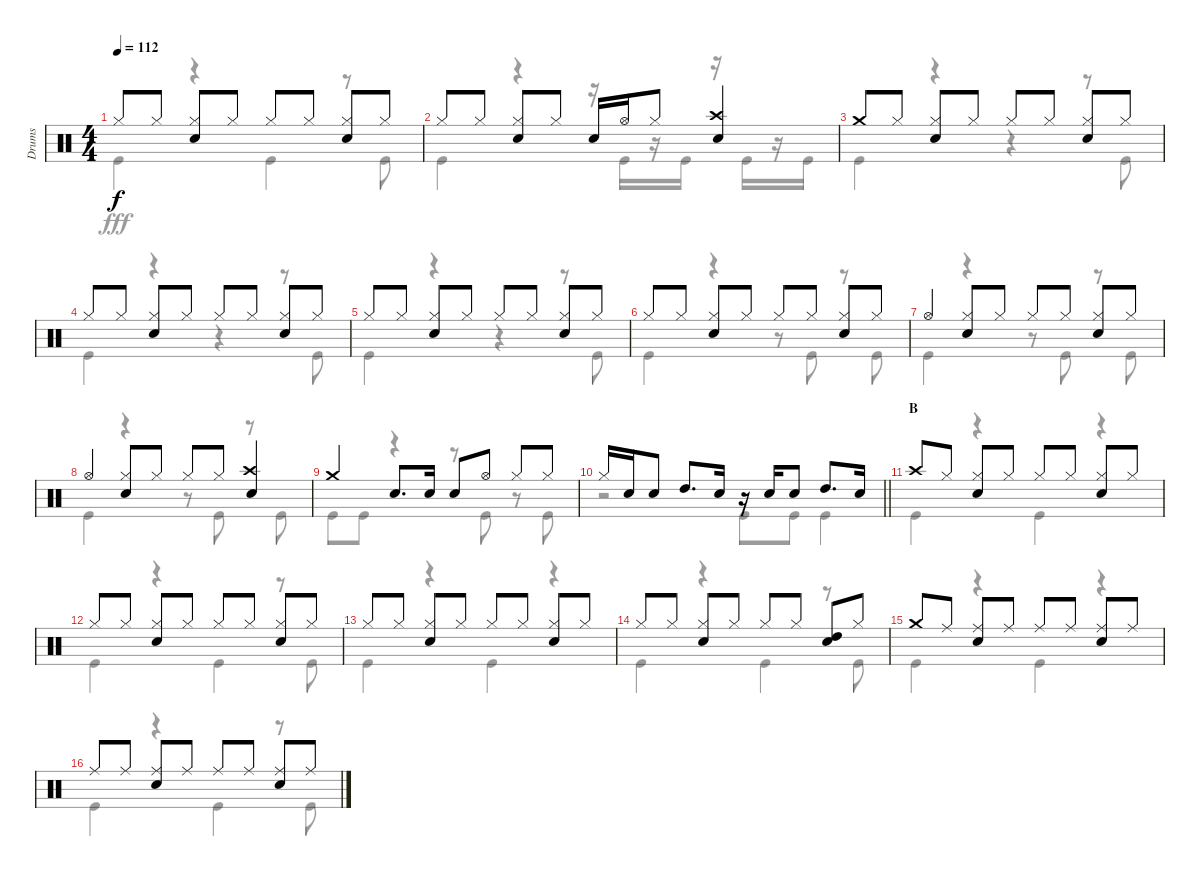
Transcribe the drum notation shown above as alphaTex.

\track ("Drums" "Drums") {instrument percussion}
\staff {score}
\articulation defaults
\voice
\ts (4 4)
\tempo 112
\clef neutral
\ks c "Hi-Hat (closed)".8{dy f} "Hi-Hat (closed)".8
("Hi-Hat (closed)" "Snare (hit) 2").8 "Hi-Hat (closed)".8 "Hi-Hat (closed)".8 "Hi-Hat (closed)".8 ("Hi-Hat (closed)" "Snare (hit) 2").8 "Hi-Hat (closed)".8 |
"Hi-Hat (closed)".8 "Hi-Hat (closed)".8 ("Hi-Hat (closed)" "Snare (hit) 2").8 "Hi-Hat (closed)".8 "Snare (hit) 2".16 "Hi-Hat (open)".16 "Hi-Hat (closed)".8 ("Crash high (hit)" "Snare (hit) 2").4 |
"Crash medium (hit)".8 "Hi-Hat (closed)".8 ("Hi-Hat (closed)" "Snare (hit) 2").8 "Hi-Hat (closed)".8 "Hi-Hat (closed)".8 "Hi-Hat (closed)".8 ("Hi-Hat (closed)" "Snare (hit) 2").8 "Hi-Hat (closed)".8 |
"Hi-Hat (closed)".8 "Hi-Hat (closed)".8 ("Hi-Hat (closed)" "Snare (hit) 2").8 "Hi-Hat (closed)".8 "Hi-Hat (closed)".8 "Hi-Hat (closed)".8 ("Hi-Hat (closed)" "Snare (hit) 2").8 "Hi-Hat (closed)".8 |
"Hi-Hat (closed)".8 "Hi-Hat (closed)".8 ("Hi-Hat (closed)" "Snare (hit) 2").8 "Hi-Hat (closed)".8 "Hi-Hat (closed)".8 "Hi-Hat (closed)".8 ("Hi-Hat (closed)" "Snare (hit) 2").8 "Hi-Hat (closed)".8 |
"Hi-Hat (closed)".8 "Hi-Hat (closed)".8 ("Hi-Hat (closed)" "Snare (hit) 2").8 "Hi-Hat (closed)".8 "Hi-Hat (closed)".8 "Hi-Hat (closed)".8 ("Hi-Hat (closed)" "Snare (hit) 2").8 "Hi-Hat (closed)".8 |
"Hi-Hat (open)".4 ("Hi-Hat (closed)" "Snare (hit) 2").8 "Hi-Hat (closed)".8 "Hi-Hat (closed)".8 "Hi-Hat (closed)".8 ("Hi-Hat (closed)" "Snare (hit) 2").8 "Hi-Hat (closed)".8 |
"Hi-Hat (open)".4 ("Hi-Hat (closed)" "Snare (hit) 2").8 "Hi-Hat (closed)".8 "Hi-Hat (closed)".8 "Hi-Hat (closed)".8 ("Crash high (hit)" "Snare (hit) 2").4 |
"Crash medium (hit)".4 "Snare (hit) 2".8{d} "Snare (hit) 2".16 "Snare (hit) 2".8 "Hi-Hat (open)".8 "Hi-Hat (closed)".8 "Hi-Hat (closed)".8 |
\barLineRight lightlight "Hi-Hat (closed)".16 "Snare (hit) 2".16 "Snare (hit) 2".8 "High Tom (hit)".8{d} "Snare (hit) 2".16
r.16 "Snare (hit) 2".16 "Snare (hit) 2".8 "High Tom (hit)".8{d} "Snare (hit) 2".16 |
\section ("" "B")
"Crash high (hit)".8 "Hi-Hat (closed)".8 ("Hi-Hat (closed)" "Snare (hit) 2").8 "Hi-Hat (closed)".8 "Hi-Hat (closed)".8 "Hi-Hat (closed)".8 ("Hi-Hat (closed)" "Snare (hit) 2").8 "Hi-Hat (closed)".8 |
"Hi-Hat (closed)".8 "Hi-Hat (closed)".8 ("Hi-Hat (closed)" "Snare (hit) 2").8 "Hi-Hat (closed)".8 "Hi-Hat (closed)".8 "Hi-Hat (closed)".8 ("Hi-Hat (closed)" "Snare (hit) 2").8 "Hi-Hat (closed)".8 |
"Hi-Hat (closed)".8 "Hi-Hat (closed)".8 ("Hi-Hat (closed)" "Snare (hit) 2").8 "Hi-Hat (closed)".8 "Hi-Hat (closed)".8 "Hi-Hat (closed)".8 ("Hi-Hat (closed)" "Snare (hit) 2").8 "Hi-Hat (closed)".8 |
"Hi-Hat (closed)".8 "Hi-Hat (closed)".8 ("Hi-Hat (closed)" "Snare (hit) 2").8 "Hi-Hat (closed)".8 "Hi-Hat (closed)".8 "Hi-Hat (closed)".8 ("High Tom (hit)" "Snare (hit) 2").8 "Hi-Hat (closed)".8 |
"Crash medium (hit)".8 "Ride (middle)".8 ("Ride (middle)" "Snare (hit) 2").8 "Ride (middle)".8 "Ride (middle)".8 "Ride (middle)".8 ("Ride (middle)" "Snare (hit) 2").8 "Ride (middle)".8 |
"Ride (middle)".8 "Ride (middle)".8 ("Ride (middle)" "Snare (hit) 2").8 "Ride (middle)".8 "Ride (middle)".8 "Ride (middle)".8 ("Ride (middle)" "Snare (hit) 2").8 "Ride (middle)".8
\voice
\clef neutral
\ottava regular
\simile none
\ks c "Kick (hit)".4{dy fff}
r.4 "Kick (hit)".4 r.8 "Kick (hit)".8 |
"Kick (hit)".4 r.4 r.16 "Kick (hit)".16 r.16 "Kick (hit)".16 r.16 "Kick (hit)".16 r.16 "Kick (hit)".16 |
"Kick (hit)".4 r.4 r.4 r.8 "Kick (hit)".8 |
"Kick (hit)".4 r.4 r.4 r.8 "Kick (hit)".8 |
"Kick (hit)".4 r.4 r.4 r.8 "Kick (hit)".8 |
"Kick (hit)".4 r.4 r.8 "Kick (hit)".8 r.8 "Kick (hit)".8 |
"Kick (hit)".4 r.4 r.8 "Kick (hit)".8 r.8 "Kick (hit)".8 |
"Kick (hit)".4 r.4 r.8 "Kick (hit)".8 r.8 "Kick (hit)".8 |
"Kick (hit)".8 "Kick (hit)".8 r.4 r.8 "Kick (hit)".8 r.8 "Kick (hit)".8 |
\barLineRight lightlight
r.2 "Kick (hit)".8 "Kick (hit)".8 "Kick (hit)".4 |
"Kick (hit)".4 r.4 "Kick (hit)".4 r.4 |
"Kick (hit)".4 r.4 "Kick (hit)".4 r.8 "Kick (hit)".8 |
"Kick (hit)".4 r.4 "Kick (hit)".4 r.4 |
"Kick (hit)".4 r.4 "Kick (hit)".4 r.8 "Kick (hit)".8 |
"Kick (hit)".4 r.4 "Kick (hit)".4 r.4 |
"Kick (hit)".4 r.4 "Kick (hit)".4 r.8 "Kick (hit)".8
